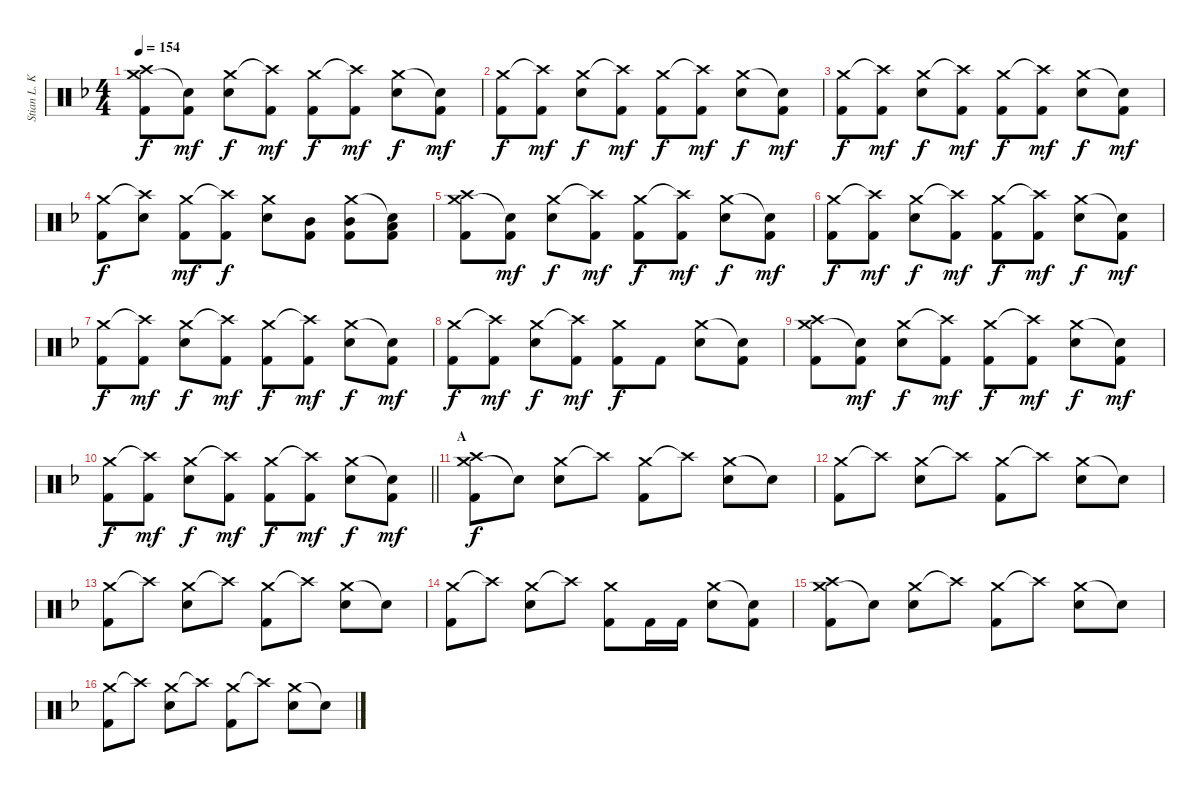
\track ("Stian L. Kristoffersen" "Stian L. K") {instrument percussion}
\staff {score}
\articulation defaults
\ts (4 4)
\tempo 154
\clef neutral
\ks f
("Crash medium (hit)" "Crash high (hit)" "Kick (hit) 2").8{dy f} ("Snare (hit)"{t} "Kick (hit) 2").8{dy mf} ("Crash medium (hit)" "Snare (hit) 2").8{dy f} ("Crash high (hit)"{t} "Kick (hit) 2").8{dy mf} ("Crash medium (hit)" "Kick (hit) 2").8{dy f} ("Crash high (hit)"{t} "Kick (hit) 2").8{dy mf} ("Crash medium (hit)" "Snare (hit) 2").8{dy f} ("Snare (hit)"{t} "Kick (hit) 2").8{dy mf} |
("Crash medium (hit)" "Kick (hit) 2").8{dy f} ("Crash high (hit)"{t} "Kick (hit) 2").8{dy mf} ("Crash medium (hit)" "Snare (hit) 2").8{dy f} ("Crash high (hit)"{t} "Kick (hit) 2").8{dy mf} ("Crash medium (hit)" "Kick (hit) 2").8{dy f} ("Crash high (hit)"{t} "Kick (hit) 2").8{dy mf} ("Crash medium (hit)" "Snare (hit) 2").8{dy f} ("Snare (hit)"{t} "Kick (hit) 2").8{dy mf} |
("Crash medium (hit)" "Kick (hit) 2").8{dy f} ("Crash high (hit)"{t} "Kick (hit) 2").8{dy mf} ("Crash medium (hit)" "Snare (hit) 2").8{dy f} ("Crash high (hit)"{t} "Kick (hit) 2").8{dy mf} ("Crash medium (hit)" "Kick (hit) 2").8{dy f} ("Crash high (hit)"{t} "Kick (hit) 2").8{dy mf} ("Crash medium (hit)" "Snare (hit) 2").8{dy f} ("Snare (hit)"{t} "Kick (hit) 2").8{dy mf} |
("Crash medium (hit)" "Kick (hit) 2").8{dy f} ("Crash high (hit)"{t} "Snare (hit) 2").8 ("Crash medium (hit)" "Kick (hit) 2").8{dy mf} ("Crash high (hit)"{t} "Kick (hit) 2").8{dy f} ("Crash medium (hit)" "Snare (hit) 2").8 ("Mid Tom (hit)" "Kick (hit) 2").8 ("Crash medium (hit)" "Mid Tom (hit)" "Kick (hit) 2").8 ("Snare (hit)"{t} "Low Tom (hit)" "Kick (hit) 2").8 |
("Crash medium (hit)" "Crash high (hit)" "Kick (hit) 2").8 ("Snare (hit)"{t} "Kick (hit) 2").8{dy mf} ("Crash medium (hit)" "Snare (hit) 2").8{dy f} ("Crash high (hit)"{t} "Kick (hit) 2").8{dy mf} ("Crash medium (hit)" "Kick (hit) 2").8{dy f} ("Crash high (hit)"{t} "Kick (hit) 2").8{dy mf} ("Crash medium (hit)" "Snare (hit) 2").8{dy f} ("Snare (hit)"{t} "Kick (hit) 2").8{dy mf} |
("Crash medium (hit)" "Kick (hit) 2").8{dy f} ("Crash high (hit)"{t} "Kick (hit) 2").8{dy mf} ("Crash medium (hit)" "Snare (hit) 2").8{dy f} ("Crash high (hit)"{t} "Kick (hit) 2").8{dy mf} ("Crash medium (hit)" "Kick (hit) 2").8{dy f} ("Crash high (hit)"{t} "Kick (hit) 2").8{dy mf} ("Crash medium (hit)" "Snare (hit) 2").8{dy f} ("Snare (hit)"{t} "Kick (hit) 2").8{dy mf} |
("Crash medium (hit)" "Kick (hit) 2").8{dy f} ("Crash high (hit)"{t} "Kick (hit) 2").8{dy mf} ("Crash medium (hit)" "Snare (hit) 2").8{dy f} ("Crash high (hit)"{t} "Kick (hit) 2").8{dy mf} ("Crash medium (hit)" "Kick (hit) 2").8{dy f} ("Crash high (hit)"{t} "Kick (hit) 2").8{dy mf} ("Crash medium (hit)" "Snare (hit) 2").8{dy f} ("Snare (hit)"{t} "Kick (hit) 2").8{dy mf} |
("Crash medium (hit)" "Kick (hit) 2").8{dy f} ("Crash high (hit)"{t} "Kick (hit) 2").8{dy mf} ("Crash medium (hit)" "Snare (hit) 2").8{dy f} ("Crash high (hit)"{t} "Kick (hit) 2").8{dy mf} ("Crash medium (hit)" "Kick (hit) 2").8{dy f} "Kick (hit) 2".8 ("Crash medium (hit)" "Snare (hit) 2").8 ("Snare (hit)"{t} "Kick (hit) 2").8 |
("Crash medium (hit)" "Crash high (hit)" "Kick (hit) 2").8 ("Snare (hit)"{t} "Kick (hit) 2").8{dy mf} ("Crash medium (hit)" "Snare (hit) 2").8{dy f} ("Crash high (hit)"{t} "Kick (hit) 2").8{dy mf} ("Crash medium (hit)" "Kick (hit) 2").8{dy f} ("Crash high (hit)"{t} "Kick (hit) 2").8{dy mf} ("Crash medium (hit)" "Snare (hit) 2").8{dy f} ("Snare (hit)"{t} "Kick (hit) 2").8{dy mf} |
\barLineRight lightlight
("Crash medium (hit)" "Kick (hit) 2").8{dy f} ("Crash high (hit)"{t} "Kick (hit) 2").8{dy mf} ("Crash medium (hit)" "Snare (hit) 2").8{dy f} ("Crash high (hit)"{t} "Kick (hit) 2").8{dy mf} ("Crash medium (hit)" "Kick (hit) 2").8{dy f} ("Crash high (hit)"{t} "Kick (hit) 2").8{dy mf} ("Crash medium (hit)" "Snare (hit) 2").8{dy f} ("Snare (hit)"{t} "Kick (hit) 2").8{dy mf} |
\section ("" "A")
("Crash medium (hit)" "Crash high (hit)" "Kick (hit) 2").8{dy f} "Snare (hit)"{t}.8 ("Crash medium (hit)" "Snare (hit) 2").8 "Crash high (hit)"{t}.8 ("Crash medium (hit)" "Kick (hit) 2").8 "Crash high (hit)"{t}.8 ("Crash medium (hit)" "Snare (hit) 2").8 "Snare (hit)"{t}.8 |
("Crash medium (hit)" "Kick (hit) 2").8 "Crash high (hit)"{t}.8 ("Crash medium (hit)" "Snare (hit) 2").8 "Crash high (hit)"{t}.8 ("Crash medium (hit)" "Kick (hit) 2").8 "Crash high (hit)"{t}.8 ("Crash medium (hit)" "Snare (hit) 2").8 "Snare (hit)"{t}.8 |
("Crash medium (hit)" "Kick (hit) 2").8 "Crash high (hit)"{t}.8 ("Crash medium (hit)" "Snare (hit) 2").8 "Crash high (hit)"{t}.8 ("Crash medium (hit)" "Kick (hit) 2").8 "Crash high (hit)"{t}.8 ("Crash medium (hit)" "Snare (hit) 2").8 "Snare (hit)"{t}.8 |
("Crash medium (hit)" "Kick (hit) 2").8 "Crash high (hit)"{t}.8 ("Crash medium (hit)" "Snare (hit) 2").8 "Crash high (hit)"{t}.8 ("Crash medium (hit)" "Kick (hit) 2").8 "Kick (hit) 2".16 "Kick (hit) 2".16 ("Crash medium (hit)" "Snare (hit) 2").8 ("Snare (hit)"{t} "Kick (hit) 2").8 |
("Crash medium (hit)" "Crash high (hit)" "Kick (hit) 2").8 "Snare (hit)"{t}.8 ("Crash medium (hit)" "Snare (hit) 2").8 "Crash high (hit)"{t}.8 ("Crash medium (hit)" "Kick (hit) 2").8 "Crash high (hit)"{t}.8 ("Crash medium (hit)" "Snare (hit) 2").8 "Snare (hit)"{t}.8 |
("Crash medium (hit)" "Kick (hit) 2").8 "Crash high (hit)"{t}.8 ("Crash medium (hit)" "Snare (hit) 2").8 "Crash high (hit)"{t}.8 ("Crash medium (hit)" "Kick (hit) 2").8 "Crash high (hit)"{t}.8 ("Crash medium (hit)" "Snare (hit) 2").8 "Snare (hit)"{t}.8
